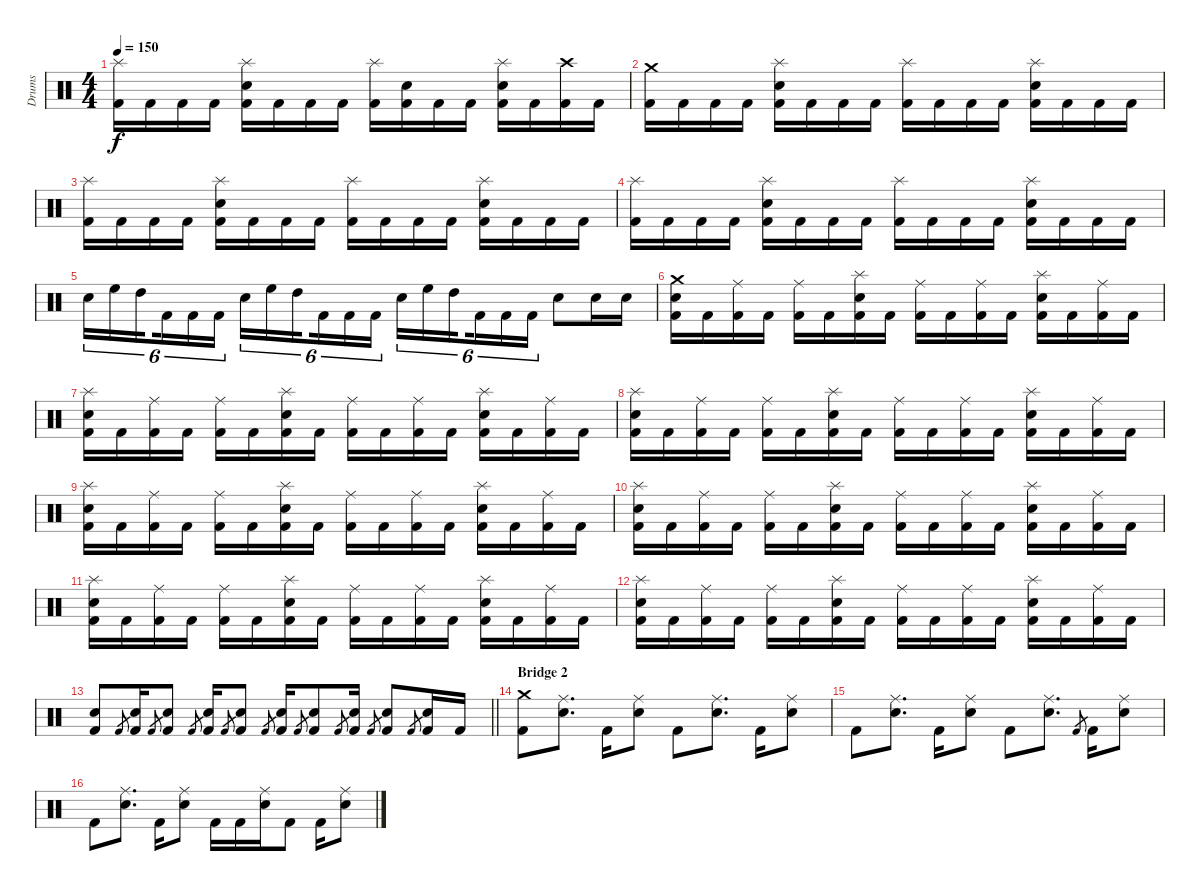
\track ("Drums" "Drums") {instrument percussion}
\staff {score}
\articulation defaults
\ts (4 4)
\tempo 150
\clef neutral
\ks c
("Splash (hit)" "Kick (hit) 2").16{dy f} "Kick (hit) 2".16 "Kick (hit) 2".16 "Kick (hit) 2".16 ("Splash (hit)" "Electric Snare (hit)" "Kick (hit) 2").16 "Kick (hit) 2".16 "Kick (hit) 2".16 "Kick (hit) 2".16 ("Splash (hit)" "Kick (hit) 2").16 ("Electric Snare (hit)" "Kick (hit) 2").16 "Kick (hit) 2".16 "Kick (hit) 2".16 ("Splash (hit)" "Electric Snare (hit)" "Kick (hit) 2").16 "Kick (hit) 2".16 ("Crash high (hit)" "Kick (hit) 2").16 "Kick (hit) 2".16 |
("Crash medium (hit)" "Kick (hit) 2").16 "Kick (hit) 2".16 "Kick (hit) 2".16 "Kick (hit) 2".16 ("Splash (hit)" "Electric Snare (hit)" "Kick (hit) 2").16 "Kick (hit) 2".16 "Kick (hit) 2".16 "Kick (hit) 2".16 ("Splash (hit)" "Kick (hit) 2").16 "Kick (hit) 2".16 "Kick (hit) 2".16 "Kick (hit) 2".16 ("Splash (hit)" "Electric Snare (hit)" "Kick (hit) 2").16 "Kick (hit) 2".16 "Kick (hit) 2".16 "Kick (hit) 2".16 |
("Splash (hit)" "Kick (hit) 2").16 "Kick (hit) 2".16 "Kick (hit) 2".16 "Kick (hit) 2".16 ("Splash (hit)" "Electric Snare (hit)" "Kick (hit) 2").16 "Kick (hit) 2".16 "Kick (hit) 2".16 "Kick (hit) 2".16 ("Splash (hit)" "Kick (hit) 2").16 "Kick (hit) 2".16 "Kick (hit) 2".16 "Kick (hit) 2".16 ("Splash (hit)" "Electric Snare (hit)" "Kick (hit) 2").16 "Kick (hit) 2".16 "Kick (hit) 2".16 "Kick (hit) 2".16 |
("Splash (hit)" "Kick (hit) 2").16 "Kick (hit) 2".16 "Kick (hit) 2".16 "Kick (hit) 2".16 ("Splash (hit)" "Electric Snare (hit)" "Kick (hit) 2").16 "Kick (hit) 2".16 "Kick (hit) 2".16 "Kick (hit) 2".16 ("Splash (hit)" "Kick (hit) 2").16 "Kick (hit) 2".16 "Kick (hit) 2".16 "Kick (hit) 2".16 ("Splash (hit)" "Electric Snare (hit)" "Kick (hit) 2").16 "Kick (hit) 2".16 "Kick (hit) 2".16 "Kick (hit) 2".16 |
"Electric Snare (hit)".16{tu (6 4)} "High Floor Tom (hit)".16{tu (6 4)} "High Tom (hit)".16{tu (6 4) beam splitsecondary} "Kick (hit) 2".16{tu (6 4)} "Kick (hit) 2".16{tu (6 4)} "Kick (hit) 2".16{tu (6 4)} "Electric Snare (hit)".16{tu (6 4)} "High Floor Tom (hit)".16{tu (6 4)} "High Tom (hit)".16{tu (6 4) beam splitsecondary} "Kick (hit) 2".16{tu (6 4)} "Kick (hit) 2".16{tu (6 4)} "Kick (hit) 2".16{tu (6 4)} "Electric Snare (hit)".16{tu (6 4)} "High Floor Tom (hit)".16{tu (6 4)} "High Tom (hit)".16{tu (6 4) beam splitsecondary} "Kick (hit) 2".16{tu (6 4)} "Kick (hit) 2".16{tu (6 4)} "Kick (hit) 2".16{tu (6 4)} "Electric Snare (hit)".8 "Electric Snare (hit)".16 "Electric Snare (hit)".16 |
("Crash medium (hit)" "Electric Snare (hit)" "Kick (hit) 2").16 "Kick (hit) 2".16 ("Ride (middle)" "Kick (hit) 2").16 "Kick (hit) 2".16 ("Ride (middle)" "Kick (hit) 2").16 "Kick (hit) 2".16 ("Splash (hit)" "Electric Snare (hit)" "Kick (hit) 2").16 "Kick (hit) 2".16 ("Ride (middle)" "Kick (hit) 2").16 "Kick (hit) 2".16 ("Ride (middle)" "Kick (hit) 2").16 "Kick (hit) 2".16 ("Splash (hit)" "Electric Snare (hit)" "Kick (hit) 2").16 "Kick (hit) 2".16 ("Ride (middle)" "Kick (hit) 2").16 "Kick (hit) 2".16 |
("Splash (hit)" "Electric Snare (hit)" "Kick (hit) 2").16 "Kick (hit) 2".16 ("Ride (middle)" "Kick (hit) 2").16 "Kick (hit) 2".16 ("Ride (middle)" "Kick (hit) 2").16 "Kick (hit) 2".16 ("Splash (hit)" "Electric Snare (hit)" "Kick (hit) 2").16 "Kick (hit) 2".16 ("Ride (middle)" "Kick (hit) 2").16 "Kick (hit) 2".16 ("Ride (middle)" "Kick (hit) 2").16 "Kick (hit) 2".16 ("Splash (hit)" "Electric Snare (hit)" "Kick (hit) 2").16 "Kick (hit) 2".16 ("Ride (middle)" "Kick (hit) 2").16 "Kick (hit) 2".16 |
("Splash (hit)" "Electric Snare (hit)" "Kick (hit) 2").16 "Kick (hit) 2".16 ("Ride (middle)" "Kick (hit) 2").16 "Kick (hit) 2".16 ("Ride (middle)" "Kick (hit) 2").16 "Kick (hit) 2".16 ("Splash (hit)" "Electric Snare (hit)" "Kick (hit) 2").16 "Kick (hit) 2".16 ("Ride (middle)" "Kick (hit) 2").16 "Kick (hit) 2".16 ("Ride (middle)" "Kick (hit) 2").16 "Kick (hit) 2".16 ("Splash (hit)" "Electric Snare (hit)" "Kick (hit) 2").16 "Kick (hit) 2".16 ("Ride (middle)" "Kick (hit) 2").16 "Kick (hit) 2".16 |
("Splash (hit)" "Electric Snare (hit)" "Kick (hit) 2").16 "Kick (hit) 2".16 ("Ride (middle)" "Kick (hit) 2").16 "Kick (hit) 2".16 ("Ride (middle)" "Kick (hit) 2").16 "Kick (hit) 2".16 ("Splash (hit)" "Electric Snare (hit)" "Kick (hit) 2").16 "Kick (hit) 2".16 ("Ride (middle)" "Kick (hit) 2").16 "Kick (hit) 2".16 ("Ride (middle)" "Kick (hit) 2").16 "Kick (hit) 2".16 ("Splash (hit)" "Electric Snare (hit)" "Kick (hit) 2").16 "Kick (hit) 2".16 ("Ride (middle)" "Kick (hit) 2").16 "Kick (hit) 2".16 |
("Splash (hit)" "Electric Snare (hit)" "Kick (hit) 2").16 "Kick (hit) 2".16 ("Ride (middle)" "Kick (hit) 2").16 "Kick (hit) 2".16 ("Ride (middle)" "Kick (hit) 2").16 "Kick (hit) 2".16 ("Splash (hit)" "Electric Snare (hit)" "Kick (hit) 2").16 "Kick (hit) 2".16 ("Ride (middle)" "Kick (hit) 2").16 "Kick (hit) 2".16 ("Ride (middle)" "Kick (hit) 2").16 "Kick (hit) 2".16 ("Splash (hit)" "Electric Snare (hit)" "Kick (hit) 2").16 "Kick (hit) 2".16 ("Ride (middle)" "Kick (hit) 2").16 "Kick (hit) 2".16 |
("Splash (hit)" "Electric Snare (hit)" "Kick (hit) 2").16 "Kick (hit) 2".16 ("Ride (middle)" "Kick (hit) 2").16 "Kick (hit) 2".16 ("Ride (middle)" "Kick (hit) 2").16 "Kick (hit) 2".16 ("Splash (hit)" "Electric Snare (hit)" "Kick (hit) 2").16 "Kick (hit) 2".16 ("Ride (middle)" "Kick (hit) 2").16 "Kick (hit) 2".16 ("Ride (middle)" "Kick (hit) 2").16 "Kick (hit) 2".16 ("Splash (hit)" "Electric Snare (hit)" "Kick (hit) 2").16 "Kick (hit) 2".16 ("Ride (middle)" "Kick (hit) 2").16 "Kick (hit) 2".16 |
("Splash (hit)" "Electric Snare (hit)" "Kick (hit) 2").16 "Kick (hit) 2".16 ("Ride (middle)" "Kick (hit) 2").16 "Kick (hit) 2".16 ("Ride (middle)" "Kick (hit) 2").16 "Kick (hit) 2".16 ("Splash (hit)" "Electric Snare (hit)" "Kick (hit) 2").16 "Kick (hit) 2".16 ("Ride (middle)" "Kick (hit) 2").16 "Kick (hit) 2".16 ("Ride (middle)" "Kick (hit) 2").16 "Kick (hit) 2".16 ("Splash (hit)" "Electric Snare (hit)" "Kick (hit) 2").16 "Kick (hit) 2".16 ("Ride (middle)" "Kick (hit) 2").16 "Kick (hit) 2".16 |
\barLineRight lightlight
("Electric Snare (hit)" "Kick (hit) 2").8 "Kick (hit) 2".8{gr} ("Electric Snare (hit)" "Kick (hit) 2").16 "Kick (hit) 2".8{gr} ("Electric Snare (hit)" "Kick (hit) 2").8 "Kick (hit) 2".8{gr} ("Electric Snare (hit)" "Kick (hit) 2").16 "Kick (hit) 2".8{gr} ("Electric Snare (hit)" "Kick (hit) 2").8 "Kick (hit) 2".8{gr} ("Electric Snare (hit)" "Kick (hit) 2").16 "Kick (hit) 2".8{gr} ("Electric Snare (hit)" "Kick (hit) 2").8 "Kick (hit) 2".8{gr} ("Electric Snare (hit)" "Kick (hit) 2").16 "Kick (hit) 2".8{gr} ("Electric Snare (hit)" "Kick (hit) 2").8 "Kick (hit) 2".8{gr} ("Electric Snare (hit)" "Kick (hit) 2").16 "Kick (hit) 2".16 |
\section ("" "Bridge 2")
("Crash medium (hit)" "Kick (hit) 2").8 ("Ride (middle)" "Electric Snare (hit)").8{d} "Kick (hit) 2".16 ("Ride (middle)" "Electric Snare (hit)").8 "Kick (hit) 2".8 ("Ride (middle)" "Electric Snare (hit)").8{d} "Kick (hit) 2".16 ("Ride (middle)" "Electric Snare (hit)").8 |
"Kick (hit) 2".8 ("Ride (middle)" "Electric Snare (hit)").8{d} "Kick (hit) 2".16 ("Ride (middle)" "Electric Snare (hit)").8 "Kick (hit) 2".8 ("Ride (middle)" "Electric Snare (hit)").8{d} "Kick (hit) 2".8{gr} "Kick (hit) 2".16 ("Ride (middle)" "Electric Snare (hit)").8 |
"Kick (hit) 2".8 ("Ride (middle)" "Electric Snare (hit)").8{d} "Kick (hit) 2".16 ("Ride (middle)" "Electric Snare (hit)").8 "Kick (hit) 2".16 "Kick (hit) 2".16 ("Ride (middle)" "Electric Snare (hit)").16 "Kick (hit) 2".8 "Kick (hit) 2".16 ("Ride (middle)" "Electric Snare (hit)").8
